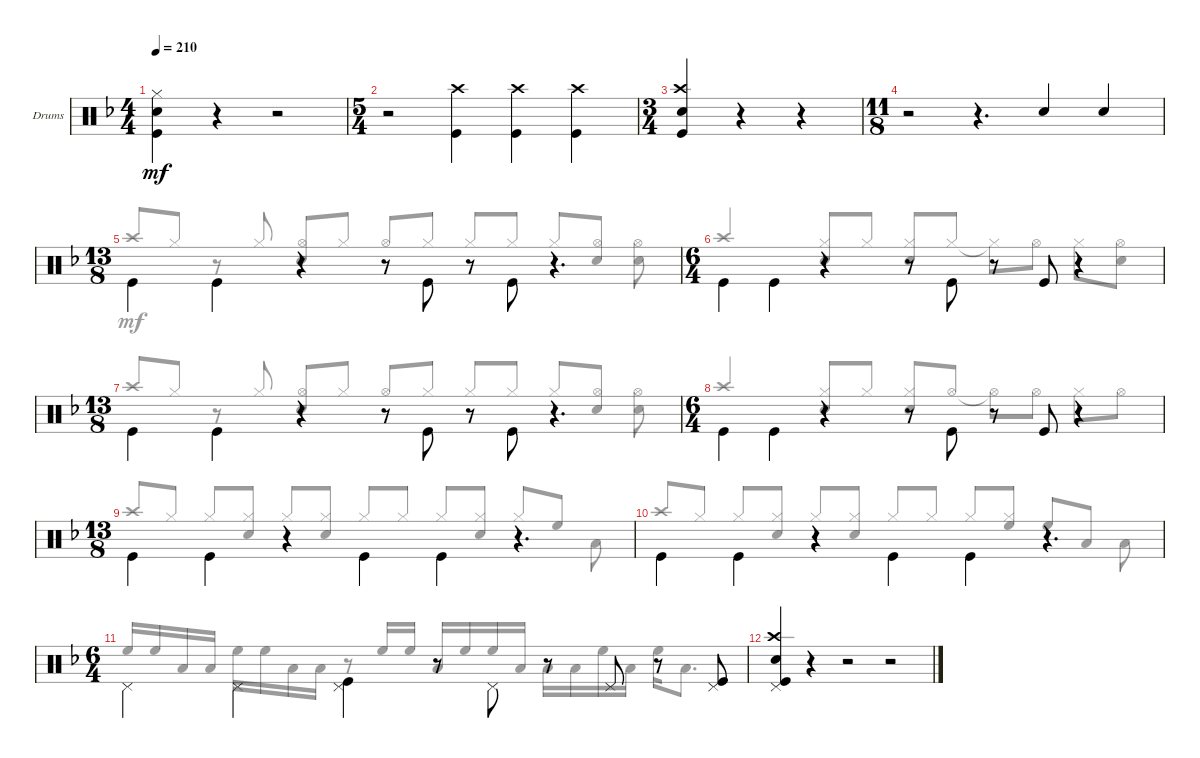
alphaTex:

\defaultSystemsLayout 4
\bracketExtendMode groupsimilarinstruments
\firstSystemTrackNameOrientation horizontal
\otherSystemsTrackNameOrientation horizontal
\track ("Drumkit" "Drums") {solo instrument percussion}
\staff {score}
\articulation defaults
\voice
\ts (4 4)
\tempo 210
\clef neutral
\ks f
("Kick (hit)" "Snare (hit) 2" "Hi-Hat (closed)").4{dy mf} r.4 r.2 |
\ts (5 4)
r.2 ("Crash high (hit)" "Kick (hit)").4 ("Crash high (hit)" "Kick (hit)").4 ("Crash high (hit)" "Kick (hit)").4 |
\ts (3 4)
("Kick (hit)" "Snare (hit) 2" "Crash high (hit)").4{beam invert} r.4 r.4 |
\ts (11 8)
r.2 r.4{d} "Snare (hit) 2".4{beam invert} "Snare (hit) 2".4{beam invert} |
\ts (13 8)
"Kick (hit)".4{beam invert} "Kick (hit)".4{beam invert} r.4 r.8 "Kick (hit)".8{beam invert} r.8 "Kick (hit)".8{beam invert} r.4{d} |
\ts (6 4)
"Kick (hit)".4{beam invert} "Kick (hit)".4{beam invert} r.4 r.8 "Kick (hit)".8{beam invert} r.8 "Kick (hit)".8 r.4 |
\ts (13 8)
"Kick (hit)".4{beam invert} "Kick (hit)".4{beam invert} r.4 r.8 "Kick (hit)".8{beam invert} r.8 "Kick (hit)".8{beam invert} r.4{d} |
\ts (6 4)
"Kick (hit)".4{beam invert} "Kick (hit)".4{beam invert} r.4 r.8 "Kick (hit)".8{beam invert} r.8 "Kick (hit)".8 r.4 |
\ts (13 8)
"Kick (hit)".4{beam invert} "Kick (hit)".4{beam invert} r.4{beam invert} "Kick (hit)".4{beam invert} "Kick (hit)".4{beam invert} r.4{d beam invert} |
"Kick (hit)".4{beam invert} "Kick (hit)".4{beam invert} r.4{beam invert} "Kick (hit)".4{beam invert} "Kick (hit)".4{beam invert} r.4{d beam invert} |
\ts (6 4)
"Pedal Hi-Hat (hit)".4{beam invert} "Pedal Hi-Hat (hit)".4{beam invert} ("Kick (hit)" "Pedal Hi-Hat (hit)").4{beam invert} r.8 "Pedal Hi-Hat (hit)".8{beam invert} r.8 "Pedal Hi-Hat (hit)".8 r.8 ("Kick (hit)" "Pedal Hi-Hat (hit)").8 |
("Pedal Hi-Hat (hit)" "Kick (hit)" "Snare (hit) 2" "Crash high (hit)").4 r.4 r.2 r.2
\voice
\clef neutral
\ottava regular
\simile none
\ks f
|
|
|
|
"Crash high (hit)".8{beam invert} "Hi-Hat (closed)".8 r.8 "Hi-Hat (closed)".8{beam invert} ("Hi-Hat (open)" "Snare (hit) 2").8 "Hi-Hat (closed)".8 "Hi-Hat (open)".8{beam invert} "Hi-Hat (closed)".8 "Hi-Hat (closed)".8 "Hi-Hat (closed)".8{beam invert} "Hi-Hat (closed)".8 ("Hi-Hat (open)" "Snare (hit) 2").8{beam invert} ("Hi-Hat (open)" "Snare (hit) 2").8 |
"Crash high (hit)".2{beam invert} ("Hi-Hat (closed)" "Snare (hit) 2").8{beam invert} "Hi-Hat (closed)".8 ("Hi-Hat (closed)" "Snare (hit) 2").8{beam invert} "Hi-Hat (closed)".8 "Hi-Hat (closed)"{t}.8 "Hi-Hat (open)".8 "Hi-Hat (closed)".8 ("Hi-Hat (open)" "Snare (hit) 2").8 |
"Crash high (hit)".8{beam invert} "Hi-Hat (closed)".8 r.8 "Hi-Hat (closed)".8{beam invert} ("Hi-Hat (open)" "Snare (hit) 2").8 "Hi-Hat (closed)".8 "Hi-Hat (open)".8{beam invert} "Hi-Hat (closed)".8 "Hi-Hat (closed)".8 "Hi-Hat (closed)".8{beam invert} "Hi-Hat (closed)".8 ("Hi-Hat (open)" "Snare (hit) 2").8{beam invert} ("Hi-Hat (open)" "Snare (hit) 2").8 |
"Crash high (hit)".2{beam invert} ("Hi-Hat (closed)" "Snare (hit) 2").8{beam invert} "Hi-Hat (closed)".8 ("Hi-Hat (closed)" "Snare (hit) 2").8{beam invert} "Hi-Hat (open)".8 "Hi-Hat (open)"{t}.8 "Hi-Hat (open)".8 "Hi-Hat (closed)".8 "Hi-Hat (open)".8 |
"Crash high (hit)".8{beam invert} "Hi-Hat (closed)".8 "Hi-Hat (closed)".8 ("Hi-Hat (closed)" "Snare (hit) 2").8{beam invert} "Hi-Hat (closed)".8 ("Hi-Hat (closed)" "Snare (hit) 2").8 "Hi-Hat (closed)".8{beam invert} "Hi-Hat (closed)".8 "Hi-Hat (closed)".8 ("Hi-Hat (closed)" "Snare (hit) 2").8{beam invert} "Hi-Hat (closed)".8 "High Floor Tom (hit)".8{beam invert} "Low Tom (hit)".8 |
"Crash high (hit)".8{beam invert} "Hi-Hat (closed)".8 "Hi-Hat (closed)".8 ("Hi-Hat (closed)" "Snare (hit) 2").8{beam invert} "Hi-Hat (closed)".8 ("Hi-Hat (closed)" "Snare (hit) 2").8 "Hi-Hat (closed)".8{beam invert} "Hi-Hat (closed)".8 "Hi-Hat (closed)".8 ("Hi-Hat (closed)" "High Floor Tom (hit)").8{beam invert} "High Floor Tom (hit)".8 "Low Tom (hit)".8{beam invert} "Low Tom (hit)".8 |
"High Floor Tom (hit)".16{beam invert} "High Floor Tom (hit)".16 "Low Tom (hit)".16 "Low Tom (hit)".16 "High Floor Tom (hit)".16 "High Floor Tom (hit)".16 "Low Tom (hit)".16 "Low Tom (hit)".16 r.8 "High Floor Tom (hit)".16 "High Floor Tom (hit)".16 "Low Tom (hit)".16{beam invert} "High Floor Tom (hit)".16 "High Floor Tom (hit)".16 "Low Tom (hit)".16 "Low Tom (hit)".16 "Low Tom (hit)".16 "High Floor Tom (hit)".16 "Low Tom (hit)".16 "High Floor Tom (hit)".16 "Low Tom (hit)".8{d} |
